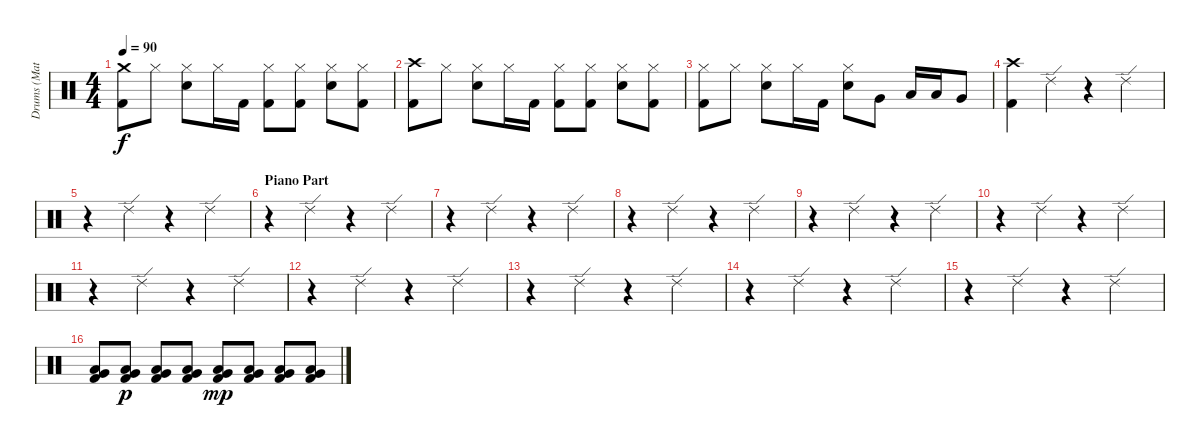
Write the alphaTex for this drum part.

\track ("Drums (Matt)" "Drums (Mat") {instrument percussion}
\staff {score}
\articulation defaults
\ts (4 4)
\tempo 90
\clef neutral
\ks c
("Crash medium (hit)" "Kick (hit) 2").8{dy f} "Hi-Hat (closed)".8 ("Hi-Hat (closed)" "Snare (hit) 2").8 "Hi-Hat (closed)".16 "Kick (hit) 2".16 ("Hi-Hat (closed)" "Kick (hit) 2").8 ("Hi-Hat (closed)" "Kick (hit) 2").8 ("Hi-Hat (closed)" "Snare (hit) 2").8 ("Hi-Hat (closed)" "Kick (hit) 2").8 |
("Crash high (hit)" "Kick (hit) 2").8 "Hi-Hat (closed)".8 ("Hi-Hat (closed)" "Snare (hit) 2").8 "Hi-Hat (closed)".16 "Kick (hit) 2".16 ("Hi-Hat (closed)" "Kick (hit) 2").8 ("Hi-Hat (closed)" "Kick (hit) 2").8 ("Hi-Hat (closed)" "Snare (hit) 2").8 ("Hi-Hat (closed)" "Kick (hit) 2").8 |
("Hi-Hat (closed)" "Kick (hit) 2").8 "Hi-Hat (closed)".8 ("Hi-Hat (closed)" "Snare (hit) 2").8 "Hi-Hat (closed)".16 "Kick (hit) 2".16 ("Hi-Hat (closed)" "Snare (hit) 2").8 "Very Low Tom (hit)".8 "Low Tom (hit)".16 "Low Tom (hit)".16 "Very Low Tom (hit)".8 |
("Crash high (hit)" "Kick (hit) 2").4 "Ride (edge) 2".4 r.4 "Ride (edge) 2".4 |
r.4 "Ride (edge) 2".4 r.4 "Ride (edge) 2".4 |
\section ("" "Piano Part")
r.4 "Ride (edge) 2".4 r.4 "Ride (edge) 2".4 |
r.4 "Ride (edge) 2".4 r.4 "Ride (edge) 2".4 |
r.4 "Ride (edge) 2".4 r.4 "Ride (edge) 2".4 |
r.4 "Ride (edge) 2".4 r.4 "Ride (edge) 2".4 |
r.4 "Ride (edge) 2".4 r.4 "Ride (edge) 2".4 |
r.4 "Ride (edge) 2".4 r.4 "Ride (edge) 2".4 |
r.4 "Ride (edge) 2".4 r.4 "Ride (edge) 2".4 |
r.4 "Ride (edge) 2".4 r.4 "Ride (edge) 2".4 |
r.4 "Ride (edge) 2".4 r.4 "Ride (edge) 2".4 |
r.4 "Ride (edge) 2".4 r.4 "Ride (edge) 2".4 |
("Low Tom (hit)" "Very Low Tom (hit)" "Kick (hit) 2").8 ("Low Tom (hit)" "Very Low Tom (hit)" "Kick (hit) 2").8{dy p} ("Low Tom (hit)" "Very Low Tom (hit)" "Kick (hit) 2").8 ("Low Tom (hit)" "Very Low Tom (hit)" "Kick (hit) 2").8 ("Low Tom (hit)" "Very Low Tom (hit)" "Kick (hit) 2").8{dy mp} ("Low Tom (hit)" "Very Low Tom (hit)" "Kick (hit) 2").8 ("Low Tom (hit)" "Very Low Tom (hit)" "Kick (hit) 2").8 ("Low Tom (hit)" "Very Low Tom (hit)" "Kick (hit) 2").8
